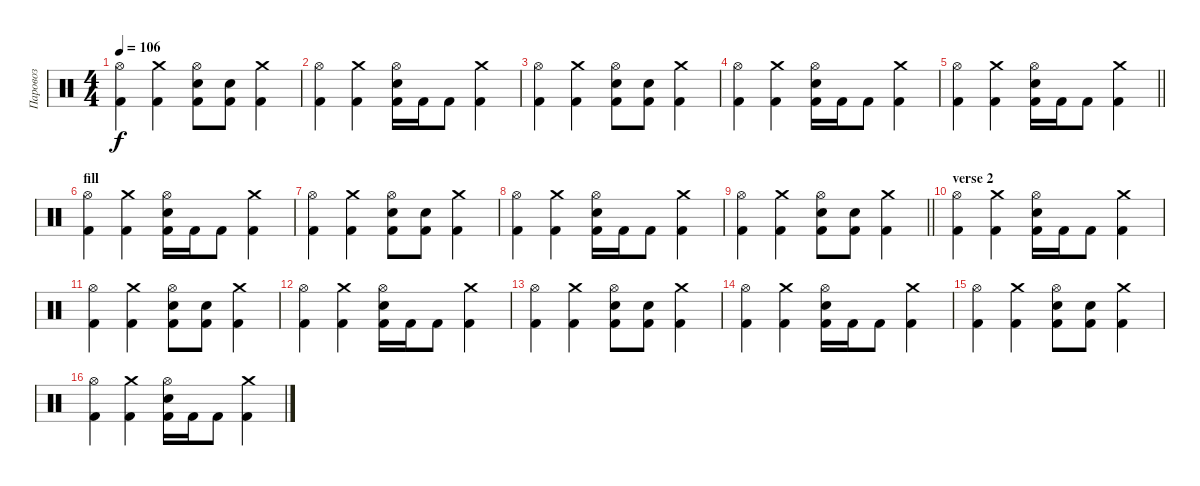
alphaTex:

\track ("Паровоз" "Паровоз") {instrument percussion}
\staff {score}
\articulation defaults
\ts (4 4)
\tempo 106
\clef neutral
\ks c
("Hi-Hat (open)" "Kick (hit) 2").4{dy f} ("Crash medium (hit)" "Kick (hit) 2").4 ("Hi-Hat (open)" "Electric Snare (hit)" "Kick (hit) 2").8 ("Electric Snare (hit)" "Kick (hit) 2").8 ("Crash medium (hit)" "Kick (hit) 2").4 |
("Hi-Hat (open)" "Kick (hit) 2").4 ("Crash medium (hit)" "Kick (hit) 2").4 ("Hi-Hat (open)" "Electric Snare (hit)" "Kick (hit) 2").16 "Kick (hit) 2".16 "Kick (hit) 2".8 ("Crash medium (hit)" "Kick (hit) 2").4 |
("Hi-Hat (open)" "Kick (hit) 2").4 ("Crash medium (hit)" "Kick (hit) 2").4 ("Hi-Hat (open)" "Electric Snare (hit)" "Kick (hit) 2").8 ("Electric Snare (hit)" "Kick (hit) 2").8 ("Crash medium (hit)" "Kick (hit) 2").4 |
("Hi-Hat (open)" "Kick (hit) 2").4 ("Crash medium (hit)" "Kick (hit) 2").4 ("Hi-Hat (open)" "Electric Snare (hit)" "Kick (hit) 2").16 "Kick (hit) 2".16 "Kick (hit) 2".8 ("Crash medium (hit)" "Kick (hit) 2").4 |
\barLineRight lightlight
("Hi-Hat (open)" "Kick (hit) 2").4 ("Crash medium (hit)" "Kick (hit) 2").4 ("Hi-Hat (open)" "Electric Snare (hit)" "Kick (hit) 2").16 "Kick (hit) 2".16 "Kick (hit) 2".8 ("Crash medium (hit)" "Kick (hit) 2").4 |
\section ("" "fill")
("Hi-Hat (open)" "Kick (hit) 2").4 ("Crash medium (hit)" "Kick (hit) 2").4 ("Hi-Hat (open)" "Electric Snare (hit)" "Kick (hit) 2").16 "Kick (hit) 2".16 "Kick (hit) 2".8 ("Crash medium (hit)" "Kick (hit) 2").4 |
("Hi-Hat (open)" "Kick (hit) 2").4 ("Crash medium (hit)" "Kick (hit) 2").4 ("Hi-Hat (open)" "Electric Snare (hit)" "Kick (hit) 2").8 ("Electric Snare (hit)" "Kick (hit) 2").8 ("Crash medium (hit)" "Kick (hit) 2").4 |
("Hi-Hat (open)" "Kick (hit) 2").4 ("Crash medium (hit)" "Kick (hit) 2").4 ("Hi-Hat (open)" "Electric Snare (hit)" "Kick (hit) 2").16 "Kick (hit) 2".16 "Kick (hit) 2".8 ("Crash medium (hit)" "Kick (hit) 2").4 |
\barLineRight lightlight
("Hi-Hat (open)" "Kick (hit) 2").4 ("Crash medium (hit)" "Kick (hit) 2").4 ("Hi-Hat (open)" "Electric Snare (hit)" "Kick (hit) 2").8 ("Electric Snare (hit)" "Kick (hit) 2").8 ("Crash medium (hit)" "Kick (hit) 2").4 |
\section ("" "verse 2")
("Hi-Hat (open)" "Kick (hit) 2").4 ("Crash medium (hit)" "Kick (hit) 2").4 ("Hi-Hat (open)" "Electric Snare (hit)" "Kick (hit) 2").16 "Kick (hit) 2".16 "Kick (hit) 2".8 ("Crash medium (hit)" "Kick (hit) 2").4 |
("Hi-Hat (open)" "Kick (hit) 2").4 ("Crash medium (hit)" "Kick (hit) 2").4 ("Hi-Hat (open)" "Electric Snare (hit)" "Kick (hit) 2").8 ("Electric Snare (hit)" "Kick (hit) 2").8 ("Crash medium (hit)" "Kick (hit) 2").4 |
("Hi-Hat (open)" "Kick (hit) 2").4 ("Crash medium (hit)" "Kick (hit) 2").4 ("Hi-Hat (open)" "Electric Snare (hit)" "Kick (hit) 2").16 "Kick (hit) 2".16 "Kick (hit) 2".8 ("Crash medium (hit)" "Kick (hit) 2").4 |
("Hi-Hat (open)" "Kick (hit) 2").4 ("Crash medium (hit)" "Kick (hit) 2").4 ("Hi-Hat (open)" "Electric Snare (hit)" "Kick (hit) 2").8 ("Electric Snare (hit)" "Kick (hit) 2").8 ("Crash medium (hit)" "Kick (hit) 2").4 |
("Hi-Hat (open)" "Kick (hit) 2").4 ("Crash medium (hit)" "Kick (hit) 2").4 ("Hi-Hat (open)" "Electric Snare (hit)" "Kick (hit) 2").16 "Kick (hit) 2".16 "Kick (hit) 2".8 ("Crash medium (hit)" "Kick (hit) 2").4 |
("Hi-Hat (open)" "Kick (hit) 2").4 ("Crash medium (hit)" "Kick (hit) 2").4 ("Hi-Hat (open)" "Electric Snare (hit)" "Kick (hit) 2").8 ("Electric Snare (hit)" "Kick (hit) 2").8 ("Crash medium (hit)" "Kick (hit) 2").4 |
("Hi-Hat (open)" "Kick (hit) 2").4 ("Crash medium (hit)" "Kick (hit) 2").4 ("Hi-Hat (open)" "Electric Snare (hit)" "Kick (hit) 2").16 "Kick (hit) 2".16 "Kick (hit) 2".8 ("Crash medium (hit)" "Kick (hit) 2").4
